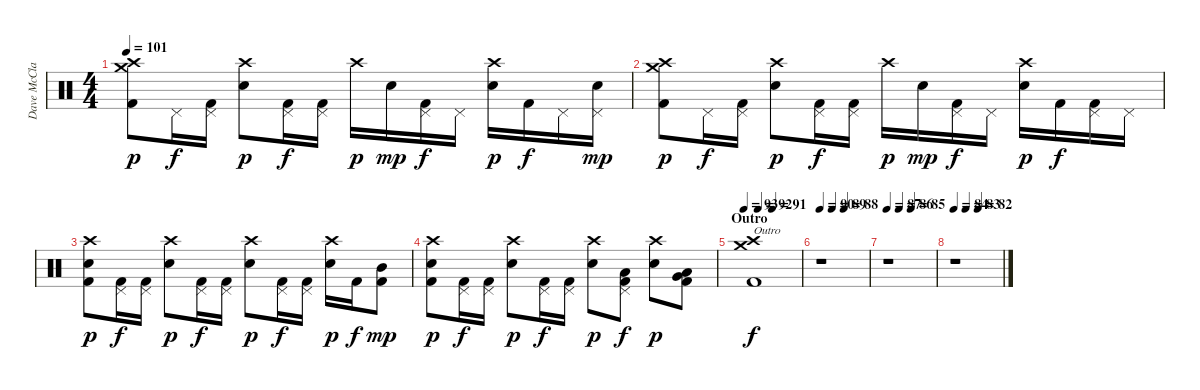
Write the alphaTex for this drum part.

\track ("Dave McClain" "Dave McCla") {instrument percussion}
\staff {score}
\articulation defaults
\ts (4 4)
\tempo 101
\clef neutral
\ks c
("Crash medium (hit)" "Crash high (hit)" "Kick (hit) 2").8{dy p} "Pedal Hi-Hat (hit)".16{dy f} ("Pedal Hi-Hat (hit)" "Kick (hit) 2").16 ("Crash high (hit)" "Electric Snare (hit)").8{dy p} ("Pedal Hi-Hat (hit)" "Kick (hit) 2").16{dy f} ("Pedal Hi-Hat (hit)" "Kick (hit) 2").16 "Crash high (hit)".16{dy p} "Electric Snare (hit)".16{dy mp} ("Pedal Hi-Hat (hit)" "Kick (hit) 2").16{dy f} "Pedal Hi-Hat (hit)".16 ("Crash high (hit)" "Electric Snare (hit)").16{dy p} "Kick (hit) 2".16{dy f} "Pedal Hi-Hat (hit)".16 ("Electric Snare (hit)" "Pedal Hi-Hat (hit)").16{dy mp} |
("Crash medium (hit)" "Crash high (hit)" "Kick (hit) 2").8{dy p} "Pedal Hi-Hat (hit)".16{dy f} ("Pedal Hi-Hat (hit)" "Kick (hit) 2").16 ("Crash high (hit)" "Electric Snare (hit)").8{dy p} ("Pedal Hi-Hat (hit)" "Kick (hit) 2").16{dy f} ("Pedal Hi-Hat (hit)" "Kick (hit) 2").16 "Crash high (hit)".16{dy p} "Electric Snare (hit)".16{dy mp} ("Pedal Hi-Hat (hit)" "Kick (hit) 2").16{dy f} "Pedal Hi-Hat (hit)".16 ("Crash high (hit)" "Electric Snare (hit)").16{dy p} "Kick (hit) 2".16{dy f} ("Pedal Hi-Hat (hit)" "Kick (hit) 2").16 "Pedal Hi-Hat (hit)".16 |
("Crash high (hit)" "Electric Snare (hit)" "Kick (hit) 2").8{dy p} ("Pedal Hi-Hat (hit)" "Kick (hit) 2").16{dy f} ("Pedal Hi-Hat (hit)" "Kick (hit) 2").16 ("Crash high (hit)" "Electric Snare (hit)").8{dy p} ("Pedal Hi-Hat (hit)" "Kick (hit) 2").16{dy f} ("Pedal Hi-Hat (hit)" "Kick (hit) 2").16 ("Crash high (hit)" "Electric Snare (hit)").8{dy p} ("Pedal Hi-Hat (hit)" "Kick (hit) 2").16{dy f} ("Pedal Hi-Hat (hit)" "Kick (hit) 2").16 ("Crash high (hit)" "Electric Snare (hit)").16{dy p} "Kick (hit) 2".16{dy f} ("Mid Tom (hit)" "Kick (hit) 2").8{dy mp} |
("Crash high (hit)" "Electric Snare (hit)" "Kick (hit) 2").8{dy p} ("Pedal Hi-Hat (hit)" "Kick (hit) 2").16{dy f} ("Pedal Hi-Hat (hit)" "Kick (hit) 2").16 ("Crash high (hit)" "Electric Snare (hit)").8{dy p} ("Pedal Hi-Hat (hit)" "Kick (hit) 2").16{dy f} ("Pedal Hi-Hat (hit)" "Kick (hit) 2").16 ("Crash high (hit)" "Electric Snare (hit)").8{dy p} ("Low Tom (hit)" "Pedal Hi-Hat (hit)" "Kick (hit) 2").8{dy f} ("Crash high (hit)" "Electric Snare (hit)").8{dy p} ("Very Low Tom (hit)" "Low Tom (hit)" "Kick (hit) 2").8 |
\section ("" "Outro")
\tempo 93
\tempo (92 0.25)
\tempo (91 0.5)
("Crash medium (hit)" "Crash high (hit)" "Kick (hit) 2").1{txt "Outro" dy f} |
\tempo 90
\tempo (89 0.25)
\tempo (88 0.5)
r.1 |
\tempo 87
\tempo (86 0.25)
\tempo (85 0.5)
r.1 |
\tempo 84
\tempo (83 0.25)
\tempo (82 0.5)
r.1
